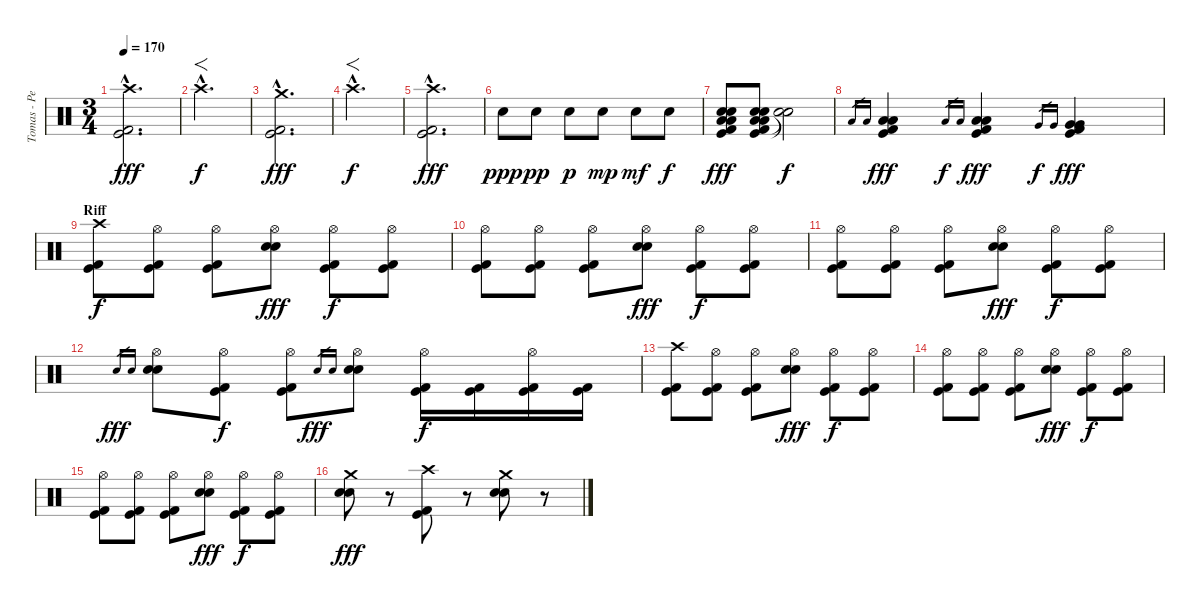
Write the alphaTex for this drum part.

\track ("Tomas - Percussions" "Tomas - Pe") {instrument percussion}
\staff {score}
\articulation defaults
\ts (3 4)
\tempo 170
\clef neutral
\ks c
("Crash high (hit)"{hac} "Kick (hit) 2"{hac} "Kick (hit)"{hac}).2{d dy fff} |
"Crash high (hit)"{hac}.2{f d dy f} |
("Crash medium (hit)"{hac} "Kick (hit) 2"{hac} "Kick (hit)"{hac}).2{d dy fff} |
"Crash high (hit)"{hac}.2{f d dy f} |
("Crash high (hit)"{hac} "Kick (hit) 2"{hac} "Kick (hit)"{hac}).2{d dy fff} |
"Electric Snare (hit)".8{dy ppp} "Electric Snare (hit)".8{dy pp} "Electric Snare (hit)".8{dy p} "Electric Snare (hit)".8{dy mp} "Electric Snare (hit)".8{dy mf} "Electric Snare (hit)".8{dy f} |
("Kick (hit)" "Kick (hit) 2" "Low Floor Tom (hit)" "Electric Snare (hit)" "Low Floor Tom (hit)" "Electric Snare (hit)").8{dy fff} ("Kick (hit)" "Kick (hit) 2" "Low Floor Tom (hit)" "Electric Snare (hit)" "Low Floor Tom (hit)" "Electric Snare (hit)").8 ("Snare (hit)"{t} "Snare (hit)"{t}).2{dy f} |
"Low Tom (hit)".16{gr} "Low Tom (hit)".16{gr} ("Kick (hit)" "Kick (hit) 2" "Low Tom (hit)" "Low Tom (hit)").4{dy fff} "Low Tom (hit)".16{gr dy f} "Low Tom (hit)".16{gr} ("Kick (hit)" "Kick (hit) 2" "Low Tom (hit)" "Low Tom (hit)").4{dy fff} "Very Low Tom (hit)".16{gr dy f} "Very Low Tom (hit)".16{gr} ("Kick (hit)" "Kick (hit) 2" "Very Low Tom (hit)" "Very Low Tom (hit)").4{dy fff} |
\section ("" "Riff")
("Crash high (hit)" "Kick (hit)" "Kick (hit) 2").8{dy f} ("Hi-Hat (open)" "Kick (hit)" "Kick (hit) 2").8 ("Hi-Hat (open)" "Kick (hit)" "Kick (hit) 2").8 ("Hi-Hat (open)" "Electric Snare (hit)" "Electric Snare (hit)").8{dy fff} ("Hi-Hat (open)" "Kick (hit)" "Kick (hit) 2").8{dy f} ("Hi-Hat (open)" "Kick (hit)" "Kick (hit) 2").8 |
("Hi-Hat (open)" "Kick (hit)" "Kick (hit) 2").8 ("Hi-Hat (open)" "Kick (hit)" "Kick (hit) 2").8 ("Hi-Hat (open)" "Kick (hit)" "Kick (hit) 2").8 ("Hi-Hat (open)" "Electric Snare (hit)" "Electric Snare (hit)").8{dy fff} ("Hi-Hat (open)" "Kick (hit)" "Kick (hit) 2").8{dy f} ("Hi-Hat (open)" "Kick (hit)" "Kick (hit) 2").8 |
("Hi-Hat (open)" "Kick (hit)" "Kick (hit) 2").8 ("Hi-Hat (open)" "Kick (hit)" "Kick (hit) 2").8 ("Hi-Hat (open)" "Kick (hit)" "Kick (hit) 2").8 ("Hi-Hat (open)" "Electric Snare (hit)" "Electric Snare (hit)").8{dy fff} ("Hi-Hat (open)" "Kick (hit)" "Kick (hit) 2").8{dy f} ("Hi-Hat (open)" "Kick (hit)" "Kick (hit) 2").8 |
"Electric Snare (hit)".16{gr dy fff} "Electric Snare (hit)".16{gr} ("Hi-Hat (open)" "Electric Snare (hit)" "Electric Snare (hit)").8 ("Hi-Hat (open)" "Kick (hit)" "Kick (hit) 2").8{dy f} ("Hi-Hat (open)" "Kick (hit)" "Kick (hit) 2").8 "Electric Snare (hit)".16{gr dy fff} "Electric Snare (hit)".16{gr} ("Hi-Hat (open)" "Electric Snare (hit)" "Electric Snare (hit)").8 ("Hi-Hat (open)" "Kick (hit)" "Kick (hit) 2").16{dy f} ("Kick (hit)" "Kick (hit) 2").16 ("Hi-Hat (open)" "Kick (hit)" "Kick (hit) 2").16 ("Kick (hit)" "Kick (hit) 2").16 |
("Crash high (hit)" "Kick (hit)" "Kick (hit) 2").8 ("Hi-Hat (open)" "Kick (hit)" "Kick (hit) 2").8 ("Hi-Hat (open)" "Kick (hit)" "Kick (hit) 2").8 ("Hi-Hat (open)" "Electric Snare (hit)" "Electric Snare (hit)").8{dy fff} ("Hi-Hat (open)" "Kick (hit)" "Kick (hit) 2").8{dy f} ("Hi-Hat (open)" "Kick (hit)" "Kick (hit) 2").8 |
("Hi-Hat (open)" "Kick (hit)" "Kick (hit) 2").8 ("Hi-Hat (open)" "Kick (hit)" "Kick (hit) 2").8 ("Hi-Hat (open)" "Kick (hit)" "Kick (hit) 2").8 ("Hi-Hat (open)" "Electric Snare (hit)" "Electric Snare (hit)").8{dy fff} ("Hi-Hat (open)" "Kick (hit)" "Kick (hit) 2").8{dy f} ("Hi-Hat (open)" "Kick (hit)" "Kick (hit) 2").8 |
("Hi-Hat (open)" "Kick (hit)" "Kick (hit) 2").8 ("Hi-Hat (open)" "Kick (hit)" "Kick (hit) 2").8 ("Hi-Hat (open)" "Kick (hit)" "Kick (hit) 2").8 ("Hi-Hat (open)" "Electric Snare (hit)" "Electric Snare (hit)").8{dy fff} ("Hi-Hat (open)" "Kick (hit)" "Kick (hit) 2").8{dy f} ("Hi-Hat (open)" "Kick (hit)" "Kick (hit) 2").8 |
("Crash medium (hit)" "Electric Snare (hit)" "Electric Snare (hit)").8{dy fff} r.8{volume 0} ("Crash high (hit)" "Kick (hit)" "Kick (hit) 2").8{volume 16} r.8{volume 0} ("Crash medium (hit)" "Electric Snare (hit)" "Electric Snare (hit)").8{volume 16} r.8{volume 0}
